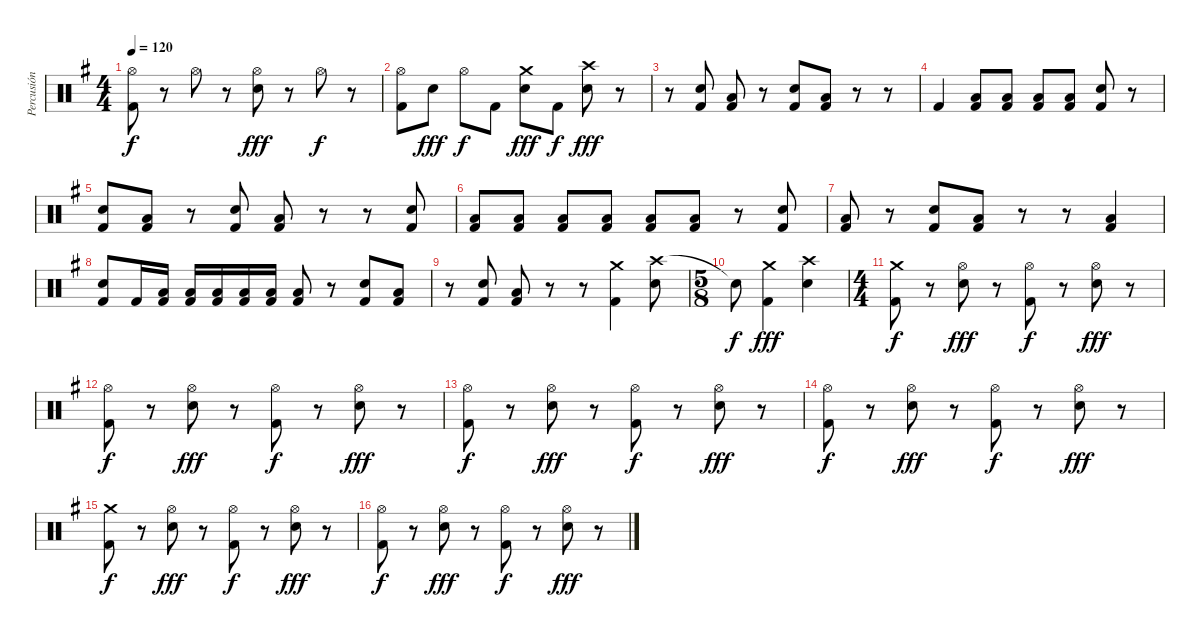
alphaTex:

\track ("Percusión" "Percusión") {instrument percussion}
\staff {score}
\articulation defaults
\ts (4 4)
\tempo 120
\clef neutral
\ks g
("Hi-Hat (open)" "Kick (hit) 2").8{dy f} r.8 "Hi-Hat (open)".8 r.8 ("Hi-Hat (open)" "Electric Snare (hit)").8{dy fff} r.8 "Hi-Hat (open)".8{dy f} r.8 |
("Hi-Hat (open)" "Kick (hit) 2").8 "Electric Snare (hit)".8{dy fff} "Hi-Hat (open)".8{dy f} "Kick (hit) 2".8 ("Crash medium (hit)" "Electric Snare (hit)").8{dy fff} "Kick (hit) 2".8{dy f} ("Crash high (hit)" "Electric Snare (hit)").8{dy fff} r.8 |
r.8 ("Electric Snare (hit)" "Kick (hit) 2").8 ("Low Tom (hit)" "Kick (hit) 2").8 r.8 ("Electric Snare (hit)" "Kick (hit) 2").8 ("Low Tom (hit)" "Kick (hit) 2").8 r.8 r.8 |
"Kick (hit) 2".4 ("Low Tom (hit)" "Kick (hit) 2").8 ("Low Tom (hit)" "Kick (hit) 2").8 ("Low Floor Tom (hit)" "Kick (hit) 2").8 ("Low Floor Tom (hit)" "Kick (hit) 2").8 ("Electric Snare (hit)" "Kick (hit) 2").8 r.8 |
("Electric Snare (hit)" "Kick (hit) 2").8 ("Low Tom (hit)" "Kick (hit) 2").8 r.8 ("Electric Snare (hit)" "Kick (hit) 2").8 ("Low Tom (hit)" "Kick (hit) 2").8 r.8 r.8 ("Electric Snare (hit)" "Kick (hit) 2").8 |
("Low Tom (hit)" "Kick (hit) 2").8 ("Low Tom (hit)" "Kick (hit) 2").8 ("Low Tom (hit)" "Kick (hit) 2").8 ("Low Floor Tom (hit)" "Kick (hit) 2").8 ("Low Floor Tom (hit)" "Kick (hit) 2").8 ("Low Floor Tom (hit)" "Kick (hit) 2").8 r.8 ("Electric Snare (hit)" "Kick (hit) 2").8 |
("Low Tom (hit)" "Kick (hit) 2").8 r.8 ("Electric Snare (hit)" "Kick (hit) 2").8 ("Low Tom (hit)" "Kick (hit) 2").8 r.8 r.8 ("Low Tom (hit)" "Kick (hit) 2").4 |
("Electric Snare (hit)" "Kick (hit) 2").8 "Kick (hit) 2".16 ("Low Floor Tom (hit)" "Kick (hit) 2").16 ("Low Floor Tom (hit)" "Kick (hit) 2").16 ("Low Floor Tom (hit)" "Kick (hit) 2").16 ("Low Floor Tom (hit)" "Kick (hit) 2").16 ("Low Floor Tom (hit)" "Kick (hit) 2").16 ("Low Floor Tom (hit)" "Kick (hit) 2").8 r.8 ("Electric Snare (hit)" "Kick (hit) 2").8 ("Low Tom (hit)" "Kick (hit) 2").8 |
r.8 ("Electric Snare (hit)" "Kick (hit) 2").8 ("Low Tom (hit)" "Kick (hit) 2").8 r.8 r.8 ("Crash medium (hit)" "Kick (hit) 2").4 ("Crash high (hit)" "Electric Snare (hit)").8 |
\ts (5 8)
"Snare (hit)"{t}.8{dy f} ("Crash medium (hit)" "Kick (hit) 2").4{dy fff} ("Crash high (hit)" "Electric Snare (hit)").4 |
\ts (4 4)
("Crash medium (hit)" "Kick (hit) 2").8{dy f} r.8 ("Hi-Hat (open)" "Electric Snare (hit)").8{dy fff} r.8 ("Hi-Hat (open)" "Kick (hit) 2").8{dy f} r.8 ("Hi-Hat (open)" "Electric Snare (hit)").8{dy fff} r.8 |
("Hi-Hat (open)" "Kick (hit) 2").8{dy f} r.8 ("Hi-Hat (open)" "Electric Snare (hit)").8{dy fff} r.8 ("Hi-Hat (open)" "Kick (hit) 2").8{dy f} r.8 ("Hi-Hat (open)" "Electric Snare (hit)").8{dy fff} r.8 |
("Hi-Hat (open)" "Kick (hit) 2").8{dy f} r.8 ("Hi-Hat (open)" "Electric Snare (hit)").8{dy fff} r.8 ("Hi-Hat (open)" "Kick (hit) 2").8{dy f} r.8 ("Hi-Hat (open)" "Electric Snare (hit)").8{dy fff} r.8 |
("Hi-Hat (open)" "Kick (hit) 2").8{dy f} r.8 ("Hi-Hat (open)" "Electric Snare (hit)").8{dy fff} r.8 ("Hi-Hat (open)" "Kick (hit) 2").8{dy f} r.8 ("Hi-Hat (open)" "Electric Snare (hit)").8{dy fff} r.8 |
("Crash medium (hit)" "Kick (hit) 2").8{dy f} r.8 ("Hi-Hat (open)" "Electric Snare (hit)").8{dy fff} r.8 ("Hi-Hat (open)" "Kick (hit) 2").8{dy f} r.8 ("Hi-Hat (open)" "Electric Snare (hit)").8{dy fff} r.8 |
("Hi-Hat (open)" "Kick (hit) 2").8{dy f} r.8 ("Hi-Hat (open)" "Electric Snare (hit)").8{dy fff} r.8 ("Hi-Hat (open)" "Kick (hit) 2").8{dy f} r.8 ("Hi-Hat (open)" "Electric Snare (hit)").8{dy fff} r.8
